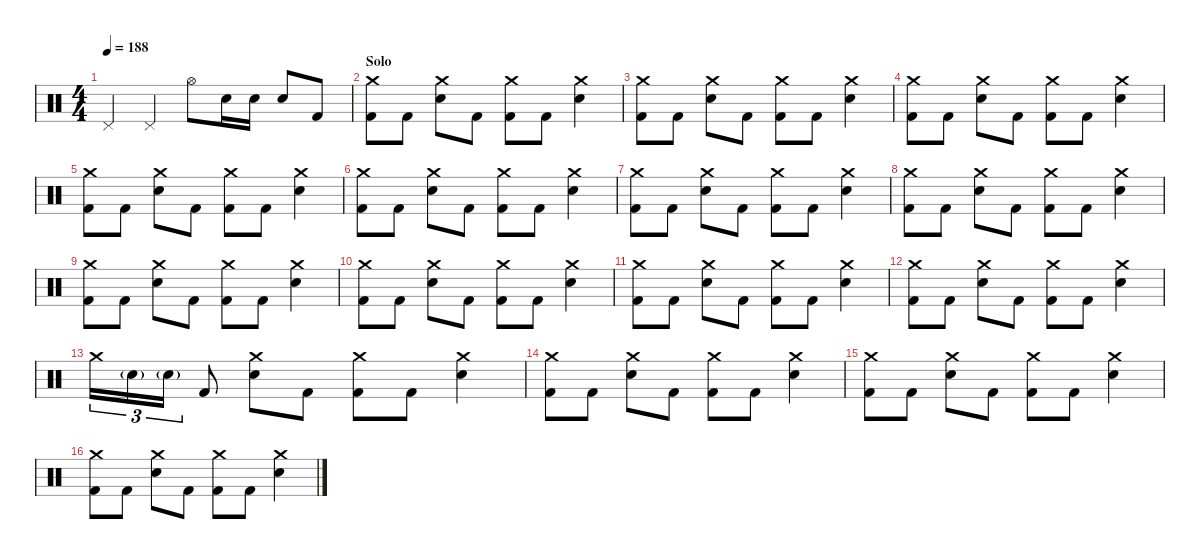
\defaultSystemsLayout 4
\hideDynamics
\bracketExtendMode nobrackets
\singleTrackTrackNamePolicy hidden
\multiTrackTrackNamePolicy hidden
\firstSystemTrackNameMode fullname
\firstSystemTrackNameOrientation horizontal
\otherSystemsTrackNameOrientation horizontal
\track ("Drums" "drm.") {instrument percussion}
\staff {score}
\articulation defaults
\ts (4 4)
\tempo 188
\clef neutral
\ks c "Pedal Hi-Hat (hit)".4{dy fff beam Up} "Pedal Hi-Hat (hit)".4{beam Up} "Hi-Hat (open)".8{beam Down} "Snare (hit) 2".16{dy f beam Down} "Snare (hit) 2".16{beam Down} "Snare (hit) 2".8{beam Up} "Kick (hit) 2".8{beam Up}
|
\section ("" "Solo")
("Crash medium (hit)" "Kick (hit) 2").8{dy mf beam Down} "Kick (hit) 2".8{dy f beam Down} ("Crash medium (hit)" "Snare (hit) 2").8{dy mf beam Down} "Kick (hit) 2".8{dy f beam Down} ("Crash medium (hit)" "Kick (hit) 2").8{dy mf beam Down} "Kick (hit) 2".8{dy f beam Down} ("Crash medium (hit)" "Snare (hit) 2").4{dy mf beam Down} |
("Crash medium (hit)" "Kick (hit) 2").8{beam Down} "Kick (hit) 2".8{dy f beam Down} ("Crash medium (hit)" "Snare (hit) 2").8{dy mf beam Down} "Kick (hit) 2".8{dy f beam Down} ("Crash medium (hit)" "Kick (hit) 2").8{dy mf beam Down} "Kick (hit) 2".8{dy f beam Down} ("Crash medium (hit)" "Snare (hit) 2").4{dy mf beam Down} |
("Crash medium (hit)" "Kick (hit) 2").8{beam Down} "Kick (hit) 2".8{dy f beam Down} ("Crash medium (hit)" "Snare (hit) 2").8{dy mf beam Down} "Kick (hit) 2".8{dy f beam Down} ("Crash medium (hit)" "Kick (hit) 2").8{dy mf beam Down} "Kick (hit) 2".8{dy f beam Down} ("Crash medium (hit)" "Snare (hit) 2").4{dy mf beam Down} |
("Crash medium (hit)" "Kick (hit) 2").8{beam Down} "Kick (hit) 2".8{dy f beam Down} ("Crash medium (hit)" "Snare (hit) 2").8{dy mf beam Down} "Kick (hit) 2".8{dy f beam Down} ("Crash medium (hit)" "Kick (hit) 2").8{dy mf beam Down} "Kick (hit) 2".8{dy f beam Down} ("Crash medium (hit)" "Snare (hit) 2").4{dy mf beam Down} |
("Crash medium (hit)" "Kick (hit) 2").8{beam Down} "Kick (hit) 2".8{dy f beam Down} ("Crash medium (hit)" "Snare (hit) 2").8{dy mf beam Down} "Kick (hit) 2".8{dy f beam Down} ("Crash medium (hit)" "Kick (hit) 2").8{dy mf beam Down} "Kick (hit) 2".8{dy f beam Down} ("Crash medium (hit)" "Snare (hit) 2").4{dy mf beam Down} |
("Crash medium (hit)" "Kick (hit) 2").8{beam Down} "Kick (hit) 2".8{dy f beam Down} ("Crash medium (hit)" "Snare (hit) 2").8{dy mf beam Down} "Kick (hit) 2".8{dy f beam Down} ("Crash medium (hit)" "Kick (hit) 2").8{dy mf beam Down} "Kick (hit) 2".8{dy f beam Down} ("Crash medium (hit)" "Snare (hit) 2").4{dy mf beam Down} |
("Crash medium (hit)" "Kick (hit) 2").8{beam Down} "Kick (hit) 2".8{dy f beam Down} ("Crash medium (hit)" "Snare (hit) 2").8{dy mf beam Down} "Kick (hit) 2".8{dy f beam Down} ("Crash medium (hit)" "Kick (hit) 2").8{dy mf beam Down} "Kick (hit) 2".8{dy f beam Down} ("Crash medium (hit)" "Snare (hit) 2").4{dy mf beam Down} |
("Crash medium (hit)" "Kick (hit) 2").8{beam Down} "Kick (hit) 2".8{dy f beam Down} ("Crash medium (hit)" "Snare (hit) 2").8{dy mf beam Down} "Kick (hit) 2".8{dy f beam Down} ("Crash medium (hit)" "Kick (hit) 2").8{dy mf beam Down} "Kick (hit) 2".8{dy f beam Down} ("Crash medium (hit)" "Snare (hit) 2").4{dy mf beam Down} |
("Crash medium (hit)" "Kick (hit) 2").8{beam Down} "Kick (hit) 2".8{dy f beam Down} ("Crash medium (hit)" "Snare (hit) 2").8{dy mf beam Down} "Kick (hit) 2".8{dy f beam Down} ("Crash medium (hit)" "Kick (hit) 2").8{dy mf beam Down} "Kick (hit) 2".8{dy f beam Down} ("Crash medium (hit)" "Snare (hit) 2").4{dy mf beam Down} |
("Crash medium (hit)" "Kick (hit) 2").8{beam Down} "Kick (hit) 2".8{dy f beam Down} ("Crash medium (hit)" "Snare (hit) 2").8{dy mf beam Down} "Kick (hit) 2".8{dy f beam Down} ("Crash medium (hit)" "Kick (hit) 2").8{dy mf beam Down} "Kick (hit) 2".8{dy f beam Down} ("Crash medium (hit)" "Snare (hit) 2").4{dy mf beam Down} |
("Crash medium (hit)" "Kick (hit) 2").8{beam Down} "Kick (hit) 2".8{dy f beam Down} ("Crash medium (hit)" "Snare (hit) 2").8{dy mf beam Down} "Kick (hit) 2".8{dy f beam Down} ("Crash medium (hit)" "Kick (hit) 2").8{dy mf beam Down} "Kick (hit) 2".8{dy f beam Down} ("Crash medium (hit)" "Snare (hit) 2").4{dy mf beam Down} |
"Crash medium (hit)".16{tu (3 2) beam Down} "Snare (hit) 2"{g}.16{tu (3 2) dy ff beam Down} "Snare (hit) 2"{g}.16{tu (3 2) beam Down} "Kick (hit) 2".8{dy f beam Up} ("Crash medium (hit)" "Snare (hit) 2").8{dy mf beam Down} "Kick (hit) 2".8{dy f beam Down} ("Crash medium (hit)" "Kick (hit) 2").8{dy mf beam Down} "Kick (hit) 2".8{dy f beam Down} ("Crash medium (hit)" "Snare (hit) 2").4{dy mf beam Down} |
("Crash medium (hit)" "Kick (hit) 2").8{beam Down} "Kick (hit) 2".8{dy f beam Down} ("Crash medium (hit)" "Snare (hit) 2").8{dy mf beam Down} "Kick (hit) 2".8{dy f beam Down} ("Crash medium (hit)" "Kick (hit) 2").8{dy mf beam Down} "Kick (hit) 2".8{dy f beam Down} ("Crash medium (hit)" "Snare (hit) 2").4{dy mf beam Down} |
("Crash medium (hit)" "Kick (hit) 2").8{beam Down} "Kick (hit) 2".8{dy f beam Down} ("Crash medium (hit)" "Snare (hit) 2").8{dy mf beam Down} "Kick (hit) 2".8{dy f beam Down} ("Crash medium (hit)" "Kick (hit) 2").8{dy mf beam Down} "Kick (hit) 2".8{dy f beam Down} ("Crash medium (hit)" "Snare (hit) 2").4{dy mf beam Down} |
("Crash medium (hit)" "Kick (hit) 2").8{beam Down} "Kick (hit) 2".8{dy f beam Down} ("Crash medium (hit)" "Snare (hit) 2").8{dy mf beam Down} "Kick (hit) 2".8{dy f beam Down} ("Crash medium (hit)" "Kick (hit) 2").8{dy mf beam Down} "Kick (hit) 2".8{dy f beam Down} ("Crash medium (hit)" "Snare (hit) 2").4{dy mf beam Down}
